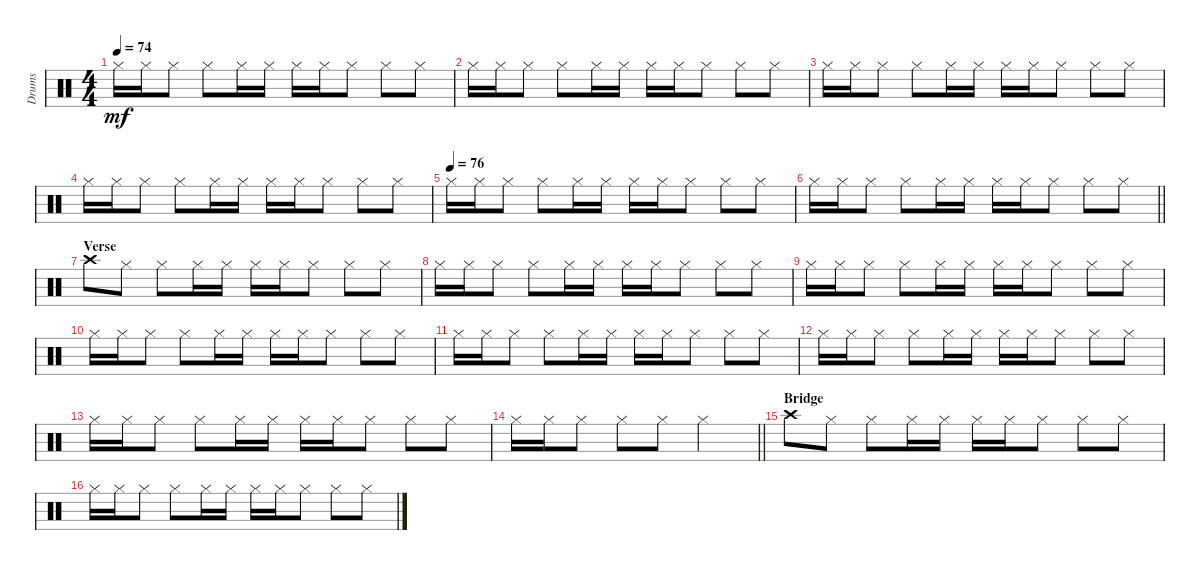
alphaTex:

\track ("Drums" "Drums") {instrument percussion}
\staff {score}
\articulation defaults
\ts (4 4)
\tempo 74
\clef neutral
\ks c "Hi-Hat (closed)".16{dy mf} "Hi-Hat (closed)".16 "Hi-Hat (closed)".8 "Hi-Hat (closed)".8 "Hi-Hat (closed)".16 "Hi-Hat (closed)".16 "Hi-Hat (closed)".16 "Hi-Hat (closed)".16 "Hi-Hat (closed)".8 "Hi-Hat (closed)".8 "Hi-Hat (closed)".8
|
"Hi-Hat (closed)".16 "Hi-Hat (closed)".16 "Hi-Hat (closed)".8 "Hi-Hat (closed)".8 "Hi-Hat (closed)".16 "Hi-Hat (closed)".16 "Hi-Hat (closed)".16 "Hi-Hat (closed)".16 "Hi-Hat (closed)".8 "Hi-Hat (closed)".8 "Hi-Hat (closed)".8 |
"Hi-Hat (closed)".16 "Hi-Hat (closed)".16 "Hi-Hat (closed)".8 "Hi-Hat (closed)".8 "Hi-Hat (closed)".16 "Hi-Hat (closed)".16 "Hi-Hat (closed)".16 "Hi-Hat (closed)".16 "Hi-Hat (closed)".8 "Hi-Hat (closed)".8 "Hi-Hat (closed)".8 |
"Hi-Hat (closed)".16 "Hi-Hat (closed)".16 "Hi-Hat (closed)".8 "Hi-Hat (closed)".8 "Hi-Hat (closed)".16 "Hi-Hat (closed)".16 "Hi-Hat (closed)".16 "Hi-Hat (closed)".16 "Hi-Hat (closed)".8 "Hi-Hat (closed)".8 "Hi-Hat (closed)".8 |
\tempo (76)
"Hi-Hat (closed)".16 "Hi-Hat (closed)".16 "Hi-Hat (closed)".8 "Hi-Hat (closed)".8 "Hi-Hat (closed)".16 "Hi-Hat (closed)".16 "Hi-Hat (closed)".16 "Hi-Hat (closed)".16 "Hi-Hat (closed)".8 "Hi-Hat (closed)".8 "Hi-Hat (closed)".8 |
\barLineRight lightlight "Hi-Hat (closed)".16 "Hi-Hat (closed)".16 "Hi-Hat (closed)".8 "Hi-Hat (closed)".8 "Hi-Hat (closed)".16 "Hi-Hat (closed)".16 "Hi-Hat (closed)".16 "Hi-Hat (closed)".16 "Hi-Hat (closed)".8 "Hi-Hat (closed)".8 "Hi-Hat (closed)".8
|
\section ("" "Verse")
"Crash high (hit)".8 "Hi-Hat (closed)".8 "Hi-Hat (closed)".8 "Hi-Hat (closed)".16 "Hi-Hat (closed)".16 "Hi-Hat (closed)".16 "Hi-Hat (closed)".16 "Hi-Hat (closed)".8 "Hi-Hat (closed)".8 "Hi-Hat (closed)".8 |
"Hi-Hat (closed)".16 "Hi-Hat (closed)".16 "Hi-Hat (closed)".8 "Hi-Hat (closed)".8 "Hi-Hat (closed)".16 "Hi-Hat (closed)".16 "Hi-Hat (closed)".16 "Hi-Hat (closed)".16 "Hi-Hat (closed)".8 "Hi-Hat (closed)".8 "Hi-Hat (closed)".8 |
"Hi-Hat (closed)".16 "Hi-Hat (closed)".16 "Hi-Hat (closed)".8 "Hi-Hat (closed)".8 "Hi-Hat (closed)".16 "Hi-Hat (closed)".16 "Hi-Hat (closed)".16 "Hi-Hat (closed)".16 "Hi-Hat (closed)".8 "Hi-Hat (closed)".8 "Hi-Hat (closed)".8 |
"Hi-Hat (closed)".16 "Hi-Hat (closed)".16 "Hi-Hat (closed)".8 "Hi-Hat (closed)".8 "Hi-Hat (closed)".16 "Hi-Hat (closed)".16 "Hi-Hat (closed)".16 "Hi-Hat (closed)".16 "Hi-Hat (closed)".8 "Hi-Hat (closed)".8 "Hi-Hat (closed)".8 |
"Hi-Hat (closed)".16 "Hi-Hat (closed)".16 "Hi-Hat (closed)".8 "Hi-Hat (closed)".8 "Hi-Hat (closed)".16 "Hi-Hat (closed)".16 "Hi-Hat (closed)".16 "Hi-Hat (closed)".16 "Hi-Hat (closed)".8 "Hi-Hat (closed)".8 "Hi-Hat (closed)".8 |
"Hi-Hat (closed)".16 "Hi-Hat (closed)".16 "Hi-Hat (closed)".8 "Hi-Hat (closed)".8 "Hi-Hat (closed)".16 "Hi-Hat (closed)".16 "Hi-Hat (closed)".16 "Hi-Hat (closed)".16 "Hi-Hat (closed)".8 "Hi-Hat (closed)".8 "Hi-Hat (closed)".8 |
"Hi-Hat (closed)".16 "Hi-Hat (closed)".16 "Hi-Hat (closed)".8 "Hi-Hat (closed)".8 "Hi-Hat (closed)".16 "Hi-Hat (closed)".16 "Hi-Hat (closed)".16 "Hi-Hat (closed)".16 "Hi-Hat (closed)".8 "Hi-Hat (closed)".8 "Hi-Hat (closed)".8 |
\barLineRight lightlight "Hi-Hat (closed)".16 "Hi-Hat (closed)".16 "Hi-Hat (closed)".8 "Hi-Hat (closed)".8 "Hi-Hat (closed)".8 "Hi-Hat (closed)".2
|
\section ("" "Bridge")
"Crash high (hit)".8 "Hi-Hat (closed)".8 "Hi-Hat (closed)".8 "Hi-Hat (closed)".16 "Hi-Hat (closed)".16 "Hi-Hat (closed)".16 "Hi-Hat (closed)".16 "Hi-Hat (closed)".8 "Hi-Hat (closed)".8 "Hi-Hat (closed)".8 |
"Hi-Hat (closed)".16 "Hi-Hat (closed)".16 "Hi-Hat (closed)".8 "Hi-Hat (closed)".8 "Hi-Hat (closed)".16 "Hi-Hat (closed)".16 "Hi-Hat (closed)".16 "Hi-Hat (closed)".16 "Hi-Hat (closed)".8 "Hi-Hat (closed)".8 "Hi-Hat (closed)".8
